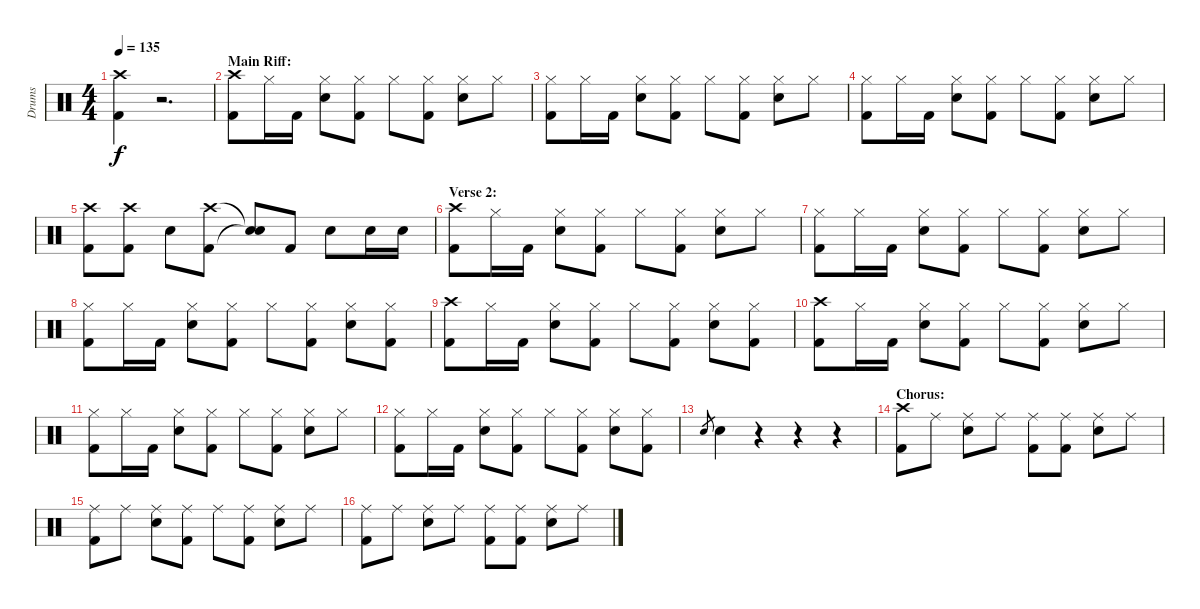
\track ("Drums" "Drums") {instrument percussion}
\staff {score}
\articulation defaults
\ts (4 4)
\tempo 135
\clef neutral
\ks c
("Crash high (hit)" "Kick (hit) 2").4{dy f} r.2{d} |
\section ("" "Main Riff:")
("Crash high (hit)" "Kick (hit) 2").8 "Hi-Hat (closed)".16 "Kick (hit) 2".16 ("Hi-Hat (closed)" "Electric Snare (hit)").8 ("Hi-Hat (closed)" "Kick (hit) 2").8 "Hi-Hat (closed)".8 ("Hi-Hat (closed)" "Kick (hit) 2").8 ("Hi-Hat (closed)" "Electric Snare (hit)").8 "Hi-Hat (closed)".8 |
("Hi-Hat (closed)" "Kick (hit) 2").8 "Hi-Hat (closed)".16 "Kick (hit) 2".16 ("Hi-Hat (closed)" "Electric Snare (hit)").8 ("Hi-Hat (closed)" "Kick (hit) 2").8 "Hi-Hat (closed)".8 ("Hi-Hat (closed)" "Kick (hit) 2").8 ("Hi-Hat (closed)" "Electric Snare (hit)").8 "Hi-Hat (closed)".8 |
("Hi-Hat (closed)" "Kick (hit) 2").8 "Hi-Hat (closed)".16 "Kick (hit) 2".16 ("Hi-Hat (closed)" "Electric Snare (hit)").8 ("Hi-Hat (closed)" "Kick (hit) 2").8 "Hi-Hat (closed)".8 ("Hi-Hat (closed)" "Kick (hit) 2").8 ("Hi-Hat (closed)" "Electric Snare (hit)").8 "Hi-Hat (closed)".8 |
("Crash high (hit)" "Kick (hit) 2").8 ("Crash high (hit)" "Kick (hit) 2").8 "Electric Snare (hit)".8 ("Crash high (hit)" "Kick (hit) 2").8 ("Snare (hit)"{t} "Snare (hit)"{t}).8 "Kick (hit) 2".8 "Electric Snare (hit)".8 "Electric Snare (hit)".16 "Electric Snare (hit)".16 |
\section ("" "Verse 2:")
("Crash high (hit)" "Kick (hit) 2").8 "Hi-Hat (closed)".16 "Kick (hit) 2".16 ("Hi-Hat (closed)" "Electric Snare (hit)").8 ("Hi-Hat (closed)" "Kick (hit) 2").8 "Hi-Hat (closed)".8 ("Hi-Hat (closed)" "Kick (hit) 2").8 ("Hi-Hat (closed)" "Electric Snare (hit)").8 "Hi-Hat (closed)".8 |
("Hi-Hat (closed)" "Kick (hit) 2").8 "Hi-Hat (closed)".16 "Kick (hit) 2".16 ("Hi-Hat (closed)" "Electric Snare (hit)").8 ("Hi-Hat (closed)" "Kick (hit) 2").8 "Hi-Hat (closed)".8 ("Hi-Hat (closed)" "Kick (hit) 2").8 ("Hi-Hat (closed)" "Electric Snare (hit)").8 "Hi-Hat (closed)".8 |
("Hi-Hat (closed)" "Kick (hit) 2").8 "Hi-Hat (closed)".16 "Kick (hit) 2".16 ("Hi-Hat (closed)" "Electric Snare (hit)").8 ("Hi-Hat (closed)" "Kick (hit) 2").8 "Hi-Hat (closed)".8 ("Hi-Hat (closed)" "Kick (hit) 2").8 ("Hi-Hat (closed)" "Electric Snare (hit)").8 ("Hi-Hat (closed)" "Kick (hit) 2").8 |
("Crash high (hit)" "Kick (hit) 2").8 "Hi-Hat (closed)".16 "Kick (hit) 2".16 ("Hi-Hat (closed)" "Electric Snare (hit)").8 ("Hi-Hat (closed)" "Kick (hit) 2").8 "Hi-Hat (closed)".8 ("Hi-Hat (closed)" "Kick (hit) 2").8 ("Hi-Hat (closed)" "Electric Snare (hit)").8 ("Hi-Hat (closed)" "Kick (hit) 2").8 |
("Crash high (hit)" "Kick (hit) 2").8 "Hi-Hat (closed)".16 "Kick (hit) 2".16 ("Hi-Hat (closed)" "Electric Snare (hit)").8 ("Hi-Hat (closed)" "Kick (hit) 2").8 "Hi-Hat (closed)".8 ("Hi-Hat (closed)" "Kick (hit) 2").8 ("Hi-Hat (closed)" "Electric Snare (hit)").8 "Hi-Hat (closed)".8 |
("Hi-Hat (closed)" "Kick (hit) 2").8 "Hi-Hat (closed)".16 "Kick (hit) 2".16 ("Hi-Hat (closed)" "Electric Snare (hit)").8 ("Hi-Hat (closed)" "Kick (hit) 2").8 "Hi-Hat (closed)".8 ("Hi-Hat (closed)" "Kick (hit) 2").8 ("Hi-Hat (closed)" "Electric Snare (hit)").8 "Hi-Hat (closed)".8 |
("Hi-Hat (closed)" "Kick (hit) 2").8 "Hi-Hat (closed)".16 "Kick (hit) 2".16 ("Hi-Hat (closed)" "Electric Snare (hit)").8 ("Hi-Hat (closed)" "Kick (hit) 2").8 "Hi-Hat (closed)".8 ("Hi-Hat (closed)" "Kick (hit) 2").8 ("Hi-Hat (closed)" "Electric Snare (hit)").8 ("Hi-Hat (closed)" "Kick (hit) 2").8 |
"Electric Snare (hit)".8{gr} "Electric Snare (hit)".4 r.4 r.4 r.4 |
\section ("" "Chorus:")
("Crash high (hit)" "Kick (hit) 2").8 "Ride (middle)".8 ("Ride (middle)" "Electric Snare (hit)").8 "Ride (middle)".8 ("Ride (middle)" "Kick (hit) 2").8 ("Ride (middle)" "Kick (hit) 2").8 ("Ride (middle)" "Electric Snare (hit)").8 "Ride (middle)".8 |
("Ride (middle)" "Kick (hit) 2").8 "Ride (middle)".8 ("Ride (middle)" "Electric Snare (hit)").8 ("Ride (middle)" "Kick (hit) 2").8 "Ride (middle)".8 ("Ride (middle)" "Kick (hit) 2").8 ("Ride (middle)" "Electric Snare (hit)").8 "Ride (middle)".8 |
("Ride (middle)" "Kick (hit) 2").8 "Ride (middle)".8 ("Ride (middle)" "Electric Snare (hit)").8 "Ride (middle)".8 ("Ride (middle)" "Kick (hit) 2").8 ("Ride (middle)" "Kick (hit) 2").8 ("Ride (middle)" "Electric Snare (hit)").8 "Ride (middle)".8
